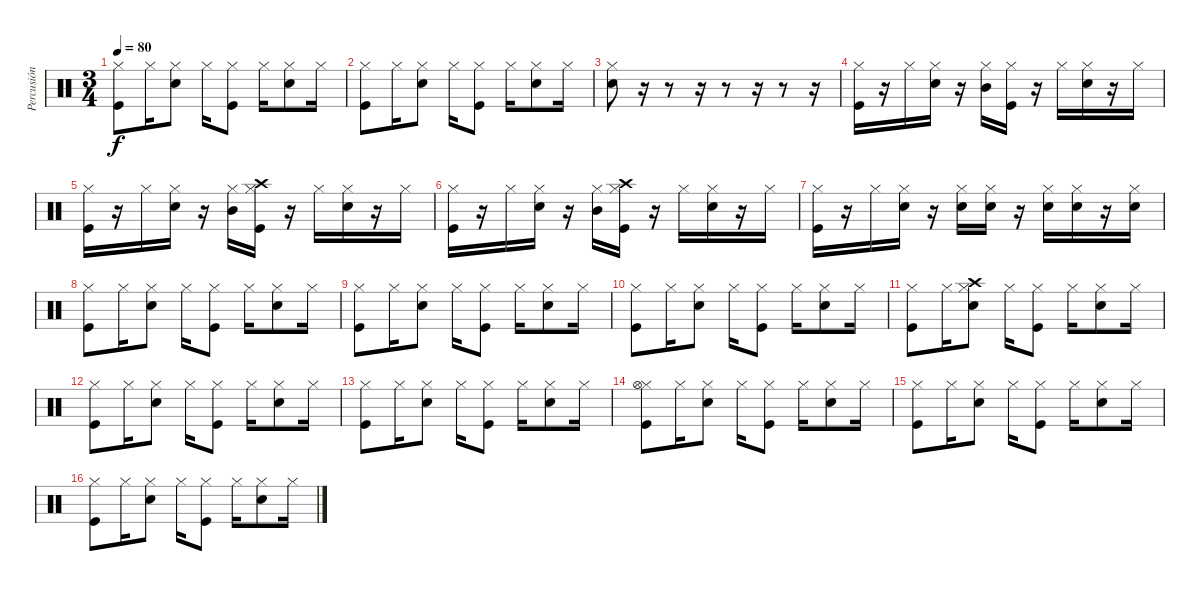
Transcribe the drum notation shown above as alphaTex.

\track ("Percusión" "Percusión") {instrument percussion}
\staff {score}
\articulation defaults
\ts (3 4)
\tempo 80
\clef neutral
\ks c
("Hi-Hat (closed)" "Kick (hit)").8{dy f} "Hi-Hat (closed)".16 ("Hi-Hat (closed)" "Snare (hit) 2").8 "Hi-Hat (closed)".16 ("Hi-Hat (closed)" "Kick (hit)").8 "Hi-Hat (closed)".16 ("Hi-Hat (closed)" "Snare (hit) 2").8 "Hi-Hat (closed)".16 |
("Hi-Hat (closed)" "Kick (hit)").8 "Hi-Hat (closed)".16 ("Hi-Hat (closed)" "Snare (hit) 2").8 "Hi-Hat (closed)".16 ("Hi-Hat (closed)" "Kick (hit)").8 "Hi-Hat (closed)".16 ("Hi-Hat (closed)" "Snare (hit) 2").8 "Hi-Hat (closed)".16 |
("Hi-Hat (closed)" "Snare (hit) 2").8 r.16 r.8 r.16 r.8 r.16 r.8 r.16 |
("Hi-Hat (closed)" "Kick (hit)").16 r.16 "Hi-Hat (closed)".16 ("Hi-Hat (closed)" "Snare (hit) 2").16 r.16 ("Hi-Hat (closed)" "Mid Tom (hit)").16 ("Hi-Hat (closed)" "Kick (hit)").16 r.16 "Hi-Hat (closed)".16 ("Hi-Hat (closed)" "Snare (hit) 2").16 r.16 "Hi-Hat (closed)".16 |
("Hi-Hat (closed)" "Kick (hit)").16 r.16 "Hi-Hat (closed)".16 ("Hi-Hat (closed)" "Snare (hit) 2").16 r.16 ("Hi-Hat (closed)" "Mid Tom (hit)").16 ("Hi-Hat (closed)" "Kick (hit)" "Crash high (hit)").16 r.16 "Hi-Hat (closed)".16 ("Hi-Hat (closed)" "Snare (hit) 2").16 r.16 "Hi-Hat (closed)".16 |
("Hi-Hat (closed)" "Kick (hit)").16 r.16 "Hi-Hat (closed)".16 ("Hi-Hat (closed)" "Snare (hit) 2").16 r.16 ("Hi-Hat (closed)" "Mid Tom (hit)").16 ("Hi-Hat (closed)" "Kick (hit)" "Crash high (hit)").16 r.16 "Hi-Hat (closed)".16 ("Hi-Hat (closed)" "Snare (hit) 2").16 r.16 "Hi-Hat (closed)".16 |
("Hi-Hat (closed)" "Kick (hit)").16 r.16 "Hi-Hat (closed)".16 ("Hi-Hat (closed)" "Snare (hit) 2").16 r.16 ("Hi-Hat (closed)" "Snare (hit) 2").16 ("Hi-Hat (closed)" "Snare (hit) 2").16 r.16 ("Hi-Hat (closed)" "Snare (hit) 2").16 ("Hi-Hat (closed)" "Snare (hit) 2").16 r.16 ("Hi-Hat (closed)" "Snare (hit) 2").16 |
("Hi-Hat (closed)" "Kick (hit)").8 "Hi-Hat (closed)".16 ("Hi-Hat (closed)" "Snare (hit) 2").8 "Hi-Hat (closed)".16 ("Hi-Hat (closed)" "Kick (hit)").8 "Hi-Hat (closed)".16 ("Hi-Hat (closed)" "Snare (hit) 2").8 "Hi-Hat (closed)".16 |
("Hi-Hat (closed)" "Kick (hit)").8 "Hi-Hat (closed)".16 ("Hi-Hat (closed)" "Snare (hit) 2").8 "Hi-Hat (closed)".16 ("Hi-Hat (closed)" "Kick (hit)").8 "Hi-Hat (closed)".16 ("Hi-Hat (closed)" "Snare (hit) 2").8 "Hi-Hat (closed)".16 |
("Hi-Hat (closed)" "Kick (hit)").8 "Hi-Hat (closed)".16 ("Hi-Hat (closed)" "Snare (hit) 2").8 "Hi-Hat (closed)".16 ("Hi-Hat (closed)" "Kick (hit)").8 "Hi-Hat (closed)".16 ("Hi-Hat (closed)" "Snare (hit) 2").8 "Hi-Hat (closed)".16 |
("Hi-Hat (closed)" "Kick (hit)").8 "Hi-Hat (closed)".16 ("Hi-Hat (closed)" "Snare (hit) 2" "Crash high (hit)").8 "Hi-Hat (closed)".16 ("Hi-Hat (closed)" "Kick (hit)").8 "Hi-Hat (closed)".16 ("Hi-Hat (closed)" "Snare (hit) 2").8 "Hi-Hat (closed)".16 |
("Hi-Hat (closed)" "Kick (hit)").8 "Hi-Hat (closed)".16 ("Hi-Hat (closed)" "Snare (hit) 2").8 "Hi-Hat (closed)".16 ("Hi-Hat (closed)" "Kick (hit)").8 "Hi-Hat (closed)".16 ("Hi-Hat (closed)" "Snare (hit) 2").8 "Hi-Hat (closed)".16 |
("Hi-Hat (closed)" "Kick (hit)").8 "Hi-Hat (closed)".16 ("Hi-Hat (closed)" "Snare (hit) 2").8 "Hi-Hat (closed)".16 ("Hi-Hat (closed)" "Kick (hit)").8 "Hi-Hat (closed)".16 ("Hi-Hat (closed)" "Snare (hit) 2").8 "Hi-Hat (closed)".16 |
("Hi-Hat (closed)" "Kick (hit)" "Hi-Hat (open)").8 "Hi-Hat (closed)".16 ("Hi-Hat (closed)" "Snare (hit) 2").8 "Hi-Hat (closed)".16 ("Hi-Hat (closed)" "Kick (hit)").8 "Hi-Hat (closed)".16 ("Hi-Hat (closed)" "Snare (hit) 2").8 "Hi-Hat (closed)".16 |
("Hi-Hat (closed)" "Kick (hit)").8 "Hi-Hat (closed)".16 ("Hi-Hat (closed)" "Snare (hit) 2").8 "Hi-Hat (closed)".16 ("Hi-Hat (closed)" "Kick (hit)").8 "Hi-Hat (closed)".16 ("Hi-Hat (closed)" "Snare (hit) 2").8 "Hi-Hat (closed)".16 |
("Hi-Hat (closed)" "Kick (hit)").8 "Hi-Hat (closed)".16 ("Hi-Hat (closed)" "Snare (hit) 2").8 "Hi-Hat (closed)".16 ("Hi-Hat (closed)" "Kick (hit)").8 "Hi-Hat (closed)".16 ("Hi-Hat (closed)" "Snare (hit) 2").8 "Hi-Hat (closed)".16
